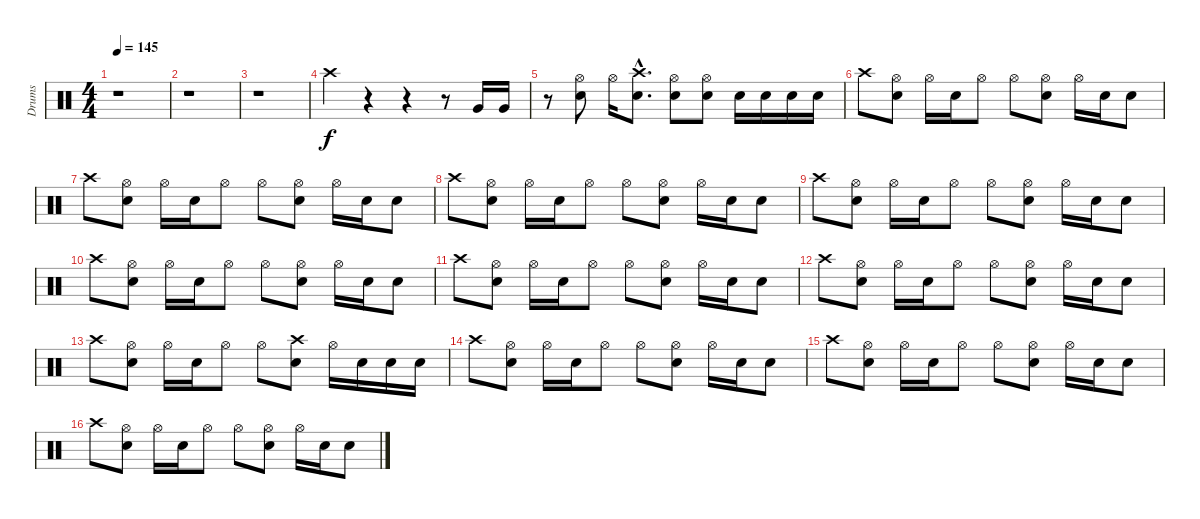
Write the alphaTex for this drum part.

\track ("Drums" "Drums") {instrument percussion}
\staff {score}
\articulation defaults
\ts (4 4)
\tempo 145
\clef neutral
\ks c
r.1{dy f} |
r.1 |
r.1 |
"Crash high (hit)".4 r.4 r.4 r.8 "Very Low Tom (hit)".16 "Very Low Tom (hit)".16 |
r.8 ("Hi-Hat (open)" "Snare (hit) 2").8 "Hi-Hat (open)".16 ("Crash high (hit)"{hac} "Snare (hit) 2"{hac}).8{d} ("Hi-Hat (open)" "Snare (hit) 2").8 ("Hi-Hat (open)" "Snare (hit) 2").8 "Snare (hit) 2".16 "Snare (hit) 2".16 "Snare (hit) 2".16 "Snare (hit) 2".16 |
"Crash high (hit)".8 ("Hi-Hat (open)" "Snare (hit) 2").8 "Hi-Hat (open)".16 "Snare (hit) 2".16 "Hi-Hat (open)".8 "Hi-Hat (open)".8 ("Hi-Hat (open)" "Snare (hit) 2").8 "Hi-Hat (open)".16 "Snare (hit) 2".16 "Snare (hit) 2".8 |
"Crash high (hit)".8 ("Hi-Hat (open)" "Snare (hit) 2").8 "Hi-Hat (open)".16 "Snare (hit) 2".16 "Hi-Hat (open)".8 "Hi-Hat (open)".8 ("Hi-Hat (open)" "Snare (hit) 2").8 "Hi-Hat (open)".16 "Snare (hit) 2".16 "Snare (hit) 2".8 |
"Crash high (hit)".8 ("Hi-Hat (open)" "Snare (hit) 2").8 "Hi-Hat (open)".16 "Snare (hit) 2".16 "Hi-Hat (open)".8 "Hi-Hat (open)".8 ("Hi-Hat (open)" "Snare (hit) 2").8 "Hi-Hat (open)".16 "Snare (hit) 2".16 "Snare (hit) 2".8 |
"Crash high (hit)".8 ("Hi-Hat (open)" "Snare (hit) 2").8 "Hi-Hat (open)".16 "Snare (hit) 2".16 "Hi-Hat (open)".8 "Hi-Hat (open)".8 ("Hi-Hat (open)" "Snare (hit) 2").8 "Hi-Hat (open)".16 "Snare (hit) 2".16 "Snare (hit) 2".8 |
"Crash high (hit)".8 ("Hi-Hat (open)" "Snare (hit) 2").8 "Hi-Hat (open)".16 "Snare (hit) 2".16 "Hi-Hat (open)".8 "Hi-Hat (open)".8 ("Hi-Hat (open)" "Snare (hit) 2").8 "Hi-Hat (open)".16 "Snare (hit) 2".16 "Snare (hit) 2".8 |
"Crash high (hit)".8 ("Hi-Hat (open)" "Snare (hit) 2").8 "Hi-Hat (open)".16 "Snare (hit) 2".16 "Hi-Hat (open)".8 "Hi-Hat (open)".8 ("Hi-Hat (open)" "Snare (hit) 2").8 "Hi-Hat (open)".16 "Snare (hit) 2".16 "Snare (hit) 2".8 |
"Crash high (hit)".8 ("Hi-Hat (open)" "Snare (hit) 2").8 "Hi-Hat (open)".16 "Snare (hit) 2".16 "Hi-Hat (open)".8 "Hi-Hat (open)".8 ("Hi-Hat (open)" "Snare (hit) 2").8 "Hi-Hat (open)".16 "Snare (hit) 2".16 "Snare (hit) 2".8 |
"Crash high (hit)".8 ("Hi-Hat (open)" "Snare (hit) 2").8 "Hi-Hat (open)".16 "Snare (hit) 2".16 "Hi-Hat (open)".8 "Hi-Hat (open)".8 ("Crash high (hit)" "Snare (hit) 2").8 "Hi-Hat (open)".16 "Snare (hit) 2".16 "Snare (hit) 2".16 "Snare (hit) 2".16 |
"Crash high (hit)".8 ("Hi-Hat (open)" "Snare (hit) 2").8 "Hi-Hat (open)".16 "Snare (hit) 2".16 "Hi-Hat (open)".8 "Hi-Hat (open)".8 ("Hi-Hat (open)" "Snare (hit) 2").8 "Hi-Hat (open)".16 "Snare (hit) 2".16 "Snare (hit) 2".8 |
"Crash high (hit)".8 ("Hi-Hat (open)" "Snare (hit) 2").8 "Hi-Hat (open)".16 "Snare (hit) 2".16 "Hi-Hat (open)".8 "Hi-Hat (open)".8 ("Hi-Hat (open)" "Snare (hit) 2").8 "Hi-Hat (open)".16 "Snare (hit) 2".16 "Snare (hit) 2".8 |
"Crash high (hit)".8 ("Hi-Hat (open)" "Snare (hit) 2").8 "Hi-Hat (open)".16 "Snare (hit) 2".16 "Hi-Hat (open)".8 "Hi-Hat (open)".8 ("Hi-Hat (open)" "Snare (hit) 2").8 "Hi-Hat (open)".16 "Snare (hit) 2".16 "Snare (hit) 2".8
